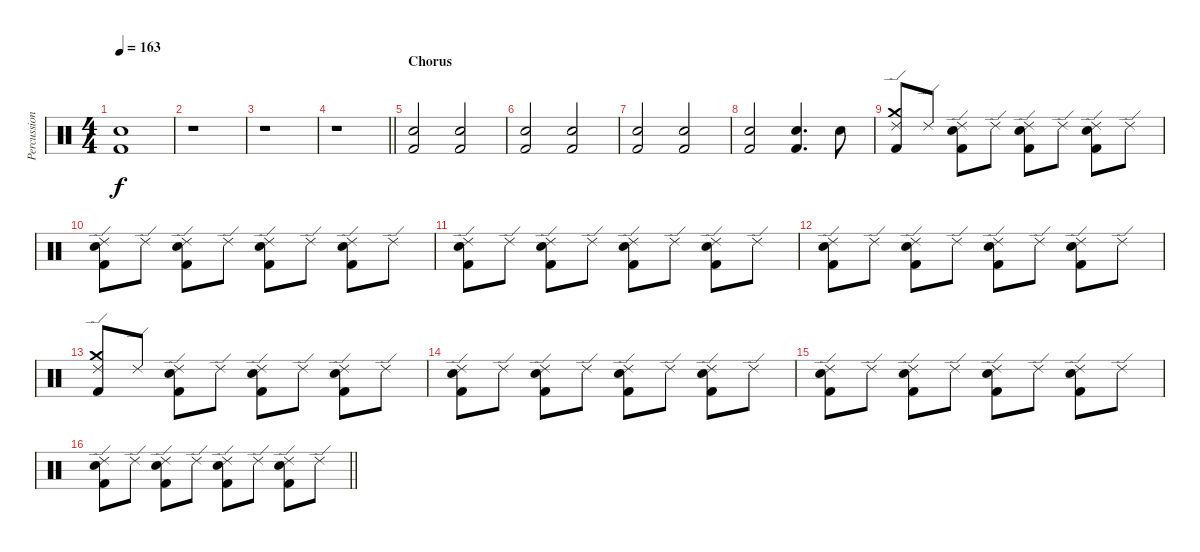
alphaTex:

\track ("Percussion" "Percussion") {instrument percussion}
\staff {score}
\articulation defaults
\ts (4 4)
\tempo 163
\clef neutral
\ks c
("Snare (hit) 2" "Kick (hit) 2").1{dy f} |
r.1 |
r.1 |
\barLineRight lightlight
r.1 |
\section ("" "Chorus")
("Snare (hit) 2" "Kick (hit) 2").2 ("Snare (hit) 2" "Kick (hit) 2").2 |
("Snare (hit) 2" "Kick (hit) 2").2 ("Snare (hit) 2" "Kick (hit) 2").2 |
("Snare (hit) 2" "Kick (hit) 2").2 ("Snare (hit) 2" "Kick (hit) 2").2 |
("Snare (hit) 2" "Kick (hit) 2").2 ("Snare (hit) 2" "Kick (hit) 2").4{d} "Snare (hit) 2".8 |
("Crash medium (hit)" "Ride (edge) 2" "Kick (hit) 2").8 "Ride (edge) 2".8 ("Ride (edge) 2" "Snare (hit) 2" "Kick (hit) 2").8 "Ride (edge) 2".8 ("Ride (edge) 2" "Snare (hit) 2" "Kick (hit) 2").8 "Ride (edge) 2".8 ("Ride (edge) 2" "Snare (hit) 2" "Kick (hit) 2").8 "Ride (edge) 2".8 |
("Ride (edge) 2" "Snare (hit) 2" "Kick (hit) 2").8 "Ride (edge) 2".8 ("Ride (edge) 2" "Snare (hit) 2" "Kick (hit) 2").8 "Ride (edge) 2".8 ("Ride (edge) 2" "Snare (hit) 2" "Kick (hit) 2").8 "Ride (edge) 2".8 ("Ride (edge) 2" "Snare (hit) 2" "Kick (hit) 2").8 "Ride (edge) 2".8 |
("Ride (edge) 2" "Snare (hit) 2" "Kick (hit) 2").8 "Ride (edge) 2".8 ("Ride (edge) 2" "Snare (hit) 2" "Kick (hit) 2").8 "Ride (edge) 2".8 ("Ride (edge) 2" "Snare (hit) 2" "Kick (hit) 2").8 "Ride (edge) 2".8 ("Ride (edge) 2" "Snare (hit) 2" "Kick (hit) 2").8 "Ride (edge) 2".8 |
("Ride (edge) 2" "Snare (hit) 2" "Kick (hit) 2").8 "Ride (edge) 2".8 ("Ride (edge) 2" "Snare (hit) 2" "Kick (hit) 2").8 "Ride (edge) 2".8 ("Ride (edge) 2" "Snare (hit) 2" "Kick (hit) 2").8 "Ride (edge) 2".8 ("Ride (edge) 2" "Snare (hit) 2" "Kick (hit) 2").8 "Ride (edge) 2".8 |
("Crash medium (hit)" "Ride (edge) 2" "Kick (hit) 2").8 "Ride (edge) 2".8 ("Ride (edge) 2" "Snare (hit) 2" "Kick (hit) 2").8 "Ride (edge) 2".8 ("Ride (edge) 2" "Snare (hit) 2" "Kick (hit) 2").8 "Ride (edge) 2".8 ("Ride (edge) 2" "Snare (hit) 2" "Kick (hit) 2").8 "Ride (edge) 2".8 |
("Ride (edge) 2" "Snare (hit) 2" "Kick (hit) 2").8 "Ride (edge) 2".8 ("Ride (edge) 2" "Snare (hit) 2" "Kick (hit) 2").8 "Ride (edge) 2".8 ("Ride (edge) 2" "Snare (hit) 2" "Kick (hit) 2").8 "Ride (edge) 2".8 ("Ride (edge) 2" "Snare (hit) 2" "Kick (hit) 2").8 "Ride (edge) 2".8 |
("Ride (edge) 2" "Snare (hit) 2" "Kick (hit) 2").8 "Ride (edge) 2".8 ("Ride (edge) 2" "Snare (hit) 2" "Kick (hit) 2").8 "Ride (edge) 2".8 ("Ride (edge) 2" "Snare (hit) 2" "Kick (hit) 2").8 "Ride (edge) 2".8 ("Ride (edge) 2" "Snare (hit) 2" "Kick (hit) 2").8 "Ride (edge) 2".8 |
\barLineRight lightlight
("Ride (edge) 2" "Snare (hit) 2" "Kick (hit) 2").8 "Ride (edge) 2".8 ("Ride (edge) 2" "Snare (hit) 2" "Kick (hit) 2").8 "Ride (edge) 2".8 ("Ride (edge) 2" "Snare (hit) 2" "Kick (hit) 2").8 "Ride (edge) 2".8 ("Ride (edge) 2" "Snare (hit) 2" "Kick (hit) 2").8 "Ride (edge) 2".8
